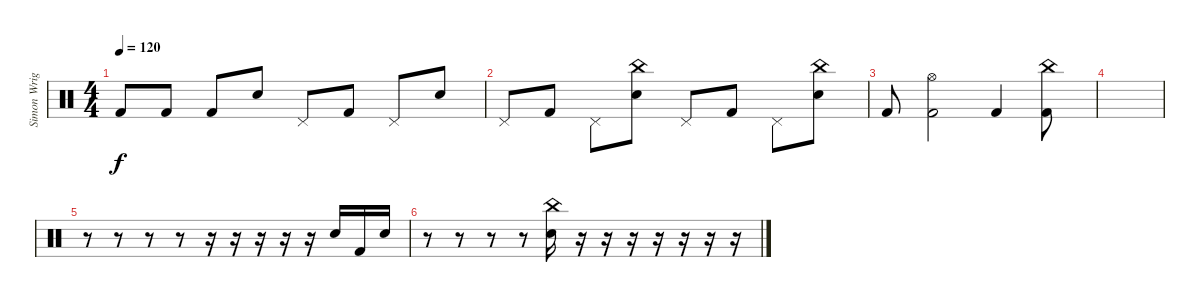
\track ("Simon Wright (i think)" "Simon Wrig") {instrument percussion}
\staff {score}
\articulation defaults
\ts (4 4)
\tempo 120
\clef neutral
\ks c "Kick (hit) 2".8{dy f} "Kick (hit) 2".8 "Kick (hit) 2".8 "Snare (hit) 2".8 "Pedal Hi-Hat (hit)".8 "Kick (hit) 2".8 "Pedal Hi-Hat (hit)".8 "Snare (hit) 2".8
|
"Pedal Hi-Hat (hit)".8 "Kick (hit) 2".8 "Pedal Hi-Hat (hit)".8 ("Snare (hit) 2" "China (hit)").8 "Pedal Hi-Hat (hit)".8 "Kick (hit) 2".8 "Pedal Hi-Hat (hit)".8 ("Snare (hit) 2" "China (hit)").8 |
"Kick (hit) 2".8 ("Kick (hit) 2" "Hi-Hat (open)").2 "Kick (hit) 2".4 ("Kick (hit) 2" "China (hit)").8 |
|
r.8 r.8 r.8 r.8 r.16 r.16 r.16 r.16 r.16 "Snare (hit) 2".16 "Kick (hit) 2".16 "Snare (hit) 2".16 |
r.8 r.8 r.8 r.8 ("Snare (hit) 2" "China (hit)").16 r.16 r.16 r.16 r.16 r.16 r.16 r.16
